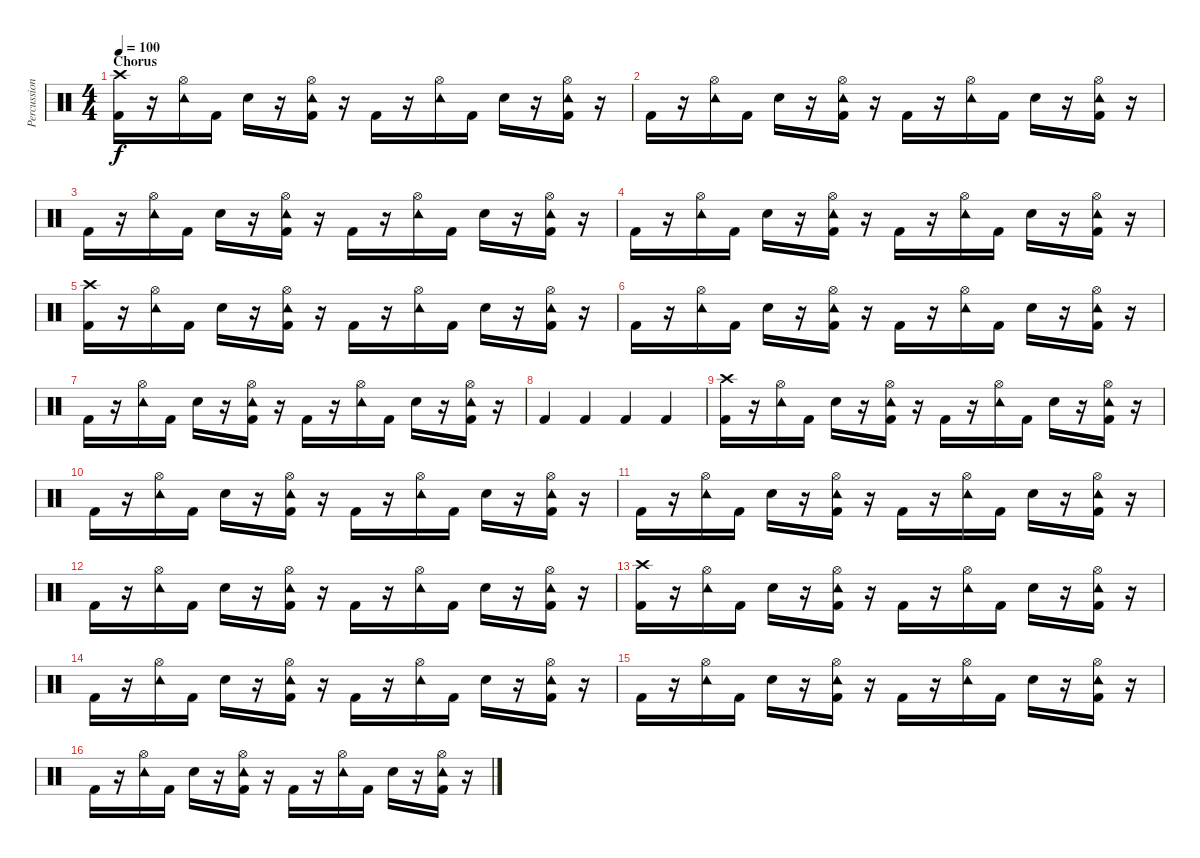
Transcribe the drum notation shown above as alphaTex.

\track ("Percussion" "Percussion") {instrument percussion}
\staff {score}
\articulation defaults
\ts (4 4)
\section ("" "Chorus")
\tempo 100
\clef neutral
\ks c
("Crash high (hit)" "Kick (hit) 2").16{dy f} r.16 ("Tambourine (hit)" "Hi-Hat (open)").16 "Kick (hit) 2".16 "Electric Snare (hit)".16 r.16 ("Tambourine (hit)" "Hi-Hat (open)" "Kick (hit) 2").16 r.16 "Kick (hit) 2".16 r.16 ("Tambourine (hit)" "Hi-Hat (open)").16 "Kick (hit) 2".16 "Electric Snare (hit)".16 r.16 ("Tambourine (hit)" "Hi-Hat (open)" "Kick (hit) 2").16 r.16 |
"Kick (hit) 2".16 r.16 ("Tambourine (hit)" "Hi-Hat (open)").16 "Kick (hit) 2".16 "Electric Snare (hit)".16 r.16 ("Tambourine (hit)" "Hi-Hat (open)" "Kick (hit) 2").16 r.16 "Kick (hit) 2".16 r.16 ("Tambourine (hit)" "Hi-Hat (open)").16 "Kick (hit) 2".16 "Electric Snare (hit)".16 r.16 ("Tambourine (hit)" "Hi-Hat (open)" "Kick (hit) 2").16 r.16 |
"Kick (hit) 2".16 r.16 ("Tambourine (hit)" "Hi-Hat (open)").16 "Kick (hit) 2".16 "Electric Snare (hit)".16 r.16 ("Tambourine (hit)" "Hi-Hat (open)" "Kick (hit) 2").16 r.16 "Kick (hit) 2".16 r.16 ("Tambourine (hit)" "Hi-Hat (open)").16 "Kick (hit) 2".16 "Electric Snare (hit)".16 r.16 ("Tambourine (hit)" "Hi-Hat (open)" "Kick (hit) 2").16 r.16 |
"Kick (hit) 2".16 r.16 ("Tambourine (hit)" "Hi-Hat (open)").16 "Kick (hit) 2".16 "Electric Snare (hit)".16 r.16 ("Tambourine (hit)" "Hi-Hat (open)" "Kick (hit) 2").16 r.16 "Kick (hit) 2".16 r.16 ("Tambourine (hit)" "Hi-Hat (open)").16 "Kick (hit) 2".16 "Electric Snare (hit)".16 r.16 ("Tambourine (hit)" "Hi-Hat (open)" "Kick (hit) 2").16 r.16 |
("Crash high (hit)" "Kick (hit) 2").16 r.16 ("Tambourine (hit)" "Hi-Hat (open)").16 "Kick (hit) 2".16 "Electric Snare (hit)".16 r.16 ("Tambourine (hit)" "Hi-Hat (open)" "Kick (hit) 2").16 r.16 "Kick (hit) 2".16 r.16 ("Tambourine (hit)" "Hi-Hat (open)").16 "Kick (hit) 2".16 "Electric Snare (hit)".16 r.16 ("Tambourine (hit)" "Hi-Hat (open)" "Kick (hit) 2").16 r.16 |
"Kick (hit) 2".16 r.16 ("Tambourine (hit)" "Hi-Hat (open)").16 "Kick (hit) 2".16 "Electric Snare (hit)".16 r.16 ("Tambourine (hit)" "Hi-Hat (open)" "Kick (hit) 2").16 r.16 "Kick (hit) 2".16 r.16 ("Tambourine (hit)" "Hi-Hat (open)").16 "Kick (hit) 2".16 "Electric Snare (hit)".16 r.16 ("Tambourine (hit)" "Hi-Hat (open)" "Kick (hit) 2").16 r.16 |
"Kick (hit) 2".16 r.16 ("Tambourine (hit)" "Hi-Hat (open)").16 "Kick (hit) 2".16 "Electric Snare (hit)".16 r.16 ("Tambourine (hit)" "Hi-Hat (open)" "Kick (hit) 2").16 r.16 "Kick (hit) 2".16 r.16 ("Tambourine (hit)" "Hi-Hat (open)").16 "Kick (hit) 2".16 "Electric Snare (hit)".16 r.16 ("Tambourine (hit)" "Hi-Hat (open)" "Kick (hit) 2").16 r.16 |
"Kick (hit) 2".4 "Kick (hit) 2".4 "Kick (hit) 2".4 "Kick (hit) 2".4 |
("Crash high (hit)" "Kick (hit) 2").16 r.16 ("Tambourine (hit)" "Hi-Hat (open)").16 "Kick (hit) 2".16 "Electric Snare (hit)".16 r.16 ("Tambourine (hit)" "Hi-Hat (open)" "Kick (hit) 2").16 r.16 "Kick (hit) 2".16 r.16 ("Tambourine (hit)" "Hi-Hat (open)").16 "Kick (hit) 2".16 "Electric Snare (hit)".16 r.16 ("Tambourine (hit)" "Hi-Hat (open)" "Kick (hit) 2").16 r.16 |
"Kick (hit) 2".16 r.16 ("Tambourine (hit)" "Hi-Hat (open)").16 "Kick (hit) 2".16 "Electric Snare (hit)".16 r.16 ("Tambourine (hit)" "Hi-Hat (open)" "Kick (hit) 2").16 r.16 "Kick (hit) 2".16 r.16 ("Tambourine (hit)" "Hi-Hat (open)").16 "Kick (hit) 2".16 "Electric Snare (hit)".16 r.16 ("Tambourine (hit)" "Hi-Hat (open)" "Kick (hit) 2").16 r.16 |
"Kick (hit) 2".16 r.16 ("Tambourine (hit)" "Hi-Hat (open)").16 "Kick (hit) 2".16 "Electric Snare (hit)".16 r.16 ("Tambourine (hit)" "Hi-Hat (open)" "Kick (hit) 2").16 r.16 "Kick (hit) 2".16 r.16 ("Tambourine (hit)" "Hi-Hat (open)").16 "Kick (hit) 2".16 "Electric Snare (hit)".16 r.16 ("Tambourine (hit)" "Hi-Hat (open)" "Kick (hit) 2").16 r.16 |
"Kick (hit) 2".16 r.16 ("Tambourine (hit)" "Hi-Hat (open)").16 "Kick (hit) 2".16 "Electric Snare (hit)".16 r.16 ("Tambourine (hit)" "Hi-Hat (open)" "Kick (hit) 2").16 r.16 "Kick (hit) 2".16 r.16 ("Tambourine (hit)" "Hi-Hat (open)").16 "Kick (hit) 2".16 "Electric Snare (hit)".16 r.16 ("Tambourine (hit)" "Hi-Hat (open)" "Kick (hit) 2").16 r.16 |
("Crash high (hit)" "Kick (hit) 2").16 r.16 ("Tambourine (hit)" "Hi-Hat (open)").16 "Kick (hit) 2".16 "Electric Snare (hit)".16 r.16 ("Tambourine (hit)" "Hi-Hat (open)" "Kick (hit) 2").16 r.16 "Kick (hit) 2".16 r.16 ("Tambourine (hit)" "Hi-Hat (open)").16 "Kick (hit) 2".16 "Electric Snare (hit)".16 r.16 ("Tambourine (hit)" "Hi-Hat (open)" "Kick (hit) 2").16 r.16 |
"Kick (hit) 2".16 r.16 ("Tambourine (hit)" "Hi-Hat (open)").16 "Kick (hit) 2".16 "Electric Snare (hit)".16 r.16 ("Tambourine (hit)" "Hi-Hat (open)" "Kick (hit) 2").16 r.16 "Kick (hit) 2".16 r.16 ("Tambourine (hit)" "Hi-Hat (open)").16 "Kick (hit) 2".16 "Electric Snare (hit)".16 r.16 ("Tambourine (hit)" "Hi-Hat (open)" "Kick (hit) 2").16 r.16 |
"Kick (hit) 2".16 r.16 ("Tambourine (hit)" "Hi-Hat (open)").16 "Kick (hit) 2".16 "Electric Snare (hit)".16 r.16 ("Tambourine (hit)" "Hi-Hat (open)" "Kick (hit) 2").16 r.16 "Kick (hit) 2".16 r.16 ("Tambourine (hit)" "Hi-Hat (open)").16 "Kick (hit) 2".16 "Electric Snare (hit)".16 r.16 ("Tambourine (hit)" "Hi-Hat (open)" "Kick (hit) 2").16 r.16 |
"Kick (hit) 2".16 r.16 ("Tambourine (hit)" "Hi-Hat (open)").16 "Kick (hit) 2".16 "Electric Snare (hit)".16 r.16 ("Tambourine (hit)" "Hi-Hat (open)" "Kick (hit) 2").16 r.16 "Kick (hit) 2".16 r.16 ("Tambourine (hit)" "Hi-Hat (open)").16 "Kick (hit) 2".16 "Electric Snare (hit)".16 r.16 ("Tambourine (hit)" "Hi-Hat (open)" "Kick (hit) 2").16 r.16
